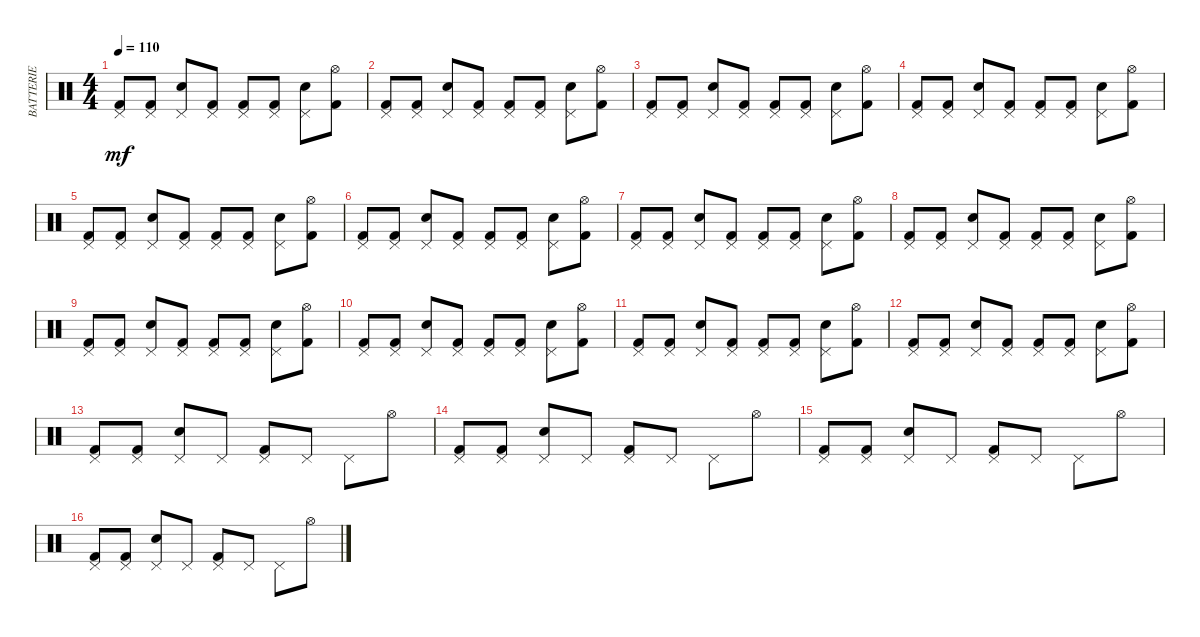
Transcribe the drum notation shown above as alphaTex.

\track ("BATTERIE" "BATTERIE") {instrument percussion}
\staff {score}
\articulation defaults
\ts (4 4)
\tempo 110
\clef neutral
\ks c
("Kick (hit) 2" "Pedal Hi-Hat (hit)").8{dy mf} ("Kick (hit) 2" "Pedal Hi-Hat (hit)").8 ("Pedal Hi-Hat (hit)" "Electric Snare (hit)").8 ("Pedal Hi-Hat (hit)" "Kick (hit) 2").8 ("Kick (hit) 2" "Pedal Hi-Hat (hit)").8 ("Pedal Hi-Hat (hit)" "Kick (hit) 2").8 ("Pedal Hi-Hat (hit)" "Electric Snare (hit)").8 ("Hi-Hat (open)" "Kick (hit) 2").8 |
("Kick (hit) 2" "Pedal Hi-Hat (hit)").8 ("Kick (hit) 2" "Pedal Hi-Hat (hit)").8 ("Pedal Hi-Hat (hit)" "Electric Snare (hit)").8 ("Pedal Hi-Hat (hit)" "Kick (hit) 2").8 ("Kick (hit) 2" "Pedal Hi-Hat (hit)").8 ("Pedal Hi-Hat (hit)" "Kick (hit) 2").8 ("Pedal Hi-Hat (hit)" "Electric Snare (hit)").8 ("Hi-Hat (open)" "Kick (hit) 2").8 |
("Pedal Hi-Hat (hit)" "Kick (hit) 2").8 ("Pedal Hi-Hat (hit)" "Kick (hit) 2").8 ("Electric Snare (hit)" "Pedal Hi-Hat (hit)").8 ("Kick (hit) 2" "Pedal Hi-Hat (hit)").8 ("Pedal Hi-Hat (hit)" "Kick (hit) 2").8 ("Kick (hit) 2" "Pedal Hi-Hat (hit)").8 ("Electric Snare (hit)" "Pedal Hi-Hat (hit)").8 ("Kick (hit) 2" "Hi-Hat (open)").8 |
("Pedal Hi-Hat (hit)" "Kick (hit) 2").8 ("Pedal Hi-Hat (hit)" "Kick (hit) 2").8 ("Electric Snare (hit)" "Pedal Hi-Hat (hit)").8 ("Kick (hit) 2" "Pedal Hi-Hat (hit)").8 ("Pedal Hi-Hat (hit)" "Kick (hit) 2").8 ("Kick (hit) 2" "Pedal Hi-Hat (hit)").8 ("Electric Snare (hit)" "Pedal Hi-Hat (hit)").8 ("Kick (hit) 2" "Hi-Hat (open)").8 |
("Pedal Hi-Hat (hit)" "Kick (hit) 2").8 ("Pedal Hi-Hat (hit)" "Kick (hit) 2").8 ("Electric Snare (hit)" "Pedal Hi-Hat (hit)").8 ("Kick (hit) 2" "Pedal Hi-Hat (hit)").8 ("Pedal Hi-Hat (hit)" "Kick (hit) 2").8 ("Kick (hit) 2" "Pedal Hi-Hat (hit)").8 ("Electric Snare (hit)" "Pedal Hi-Hat (hit)").8 ("Kick (hit) 2" "Hi-Hat (open)").8 |
("Pedal Hi-Hat (hit)" "Kick (hit) 2").8 ("Pedal Hi-Hat (hit)" "Kick (hit) 2").8 ("Electric Snare (hit)" "Pedal Hi-Hat (hit)").8 ("Kick (hit) 2" "Pedal Hi-Hat (hit)").8 ("Pedal Hi-Hat (hit)" "Kick (hit) 2").8 ("Kick (hit) 2" "Pedal Hi-Hat (hit)").8 ("Electric Snare (hit)" "Pedal Hi-Hat (hit)").8 ("Kick (hit) 2" "Hi-Hat (open)").8 |
("Pedal Hi-Hat (hit)" "Kick (hit) 2").8 ("Pedal Hi-Hat (hit)" "Kick (hit) 2").8 ("Electric Snare (hit)" "Pedal Hi-Hat (hit)").8 ("Kick (hit) 2" "Pedal Hi-Hat (hit)").8 ("Pedal Hi-Hat (hit)" "Kick (hit) 2").8 ("Kick (hit) 2" "Pedal Hi-Hat (hit)").8 ("Electric Snare (hit)" "Pedal Hi-Hat (hit)").8 ("Kick (hit) 2" "Hi-Hat (open)").8 |
("Pedal Hi-Hat (hit)" "Kick (hit) 2").8 ("Pedal Hi-Hat (hit)" "Kick (hit) 2").8 ("Electric Snare (hit)" "Pedal Hi-Hat (hit)").8 ("Kick (hit) 2" "Pedal Hi-Hat (hit)").8 ("Pedal Hi-Hat (hit)" "Kick (hit) 2").8 ("Kick (hit) 2" "Pedal Hi-Hat (hit)").8 ("Electric Snare (hit)" "Pedal Hi-Hat (hit)").8 ("Kick (hit) 2" "Hi-Hat (open)").8 |
("Pedal Hi-Hat (hit)" "Kick (hit) 2").8 ("Pedal Hi-Hat (hit)" "Kick (hit) 2").8 ("Electric Snare (hit)" "Pedal Hi-Hat (hit)").8 ("Kick (hit) 2" "Pedal Hi-Hat (hit)").8 ("Pedal Hi-Hat (hit)" "Kick (hit) 2").8 ("Kick (hit) 2" "Pedal Hi-Hat (hit)").8 ("Electric Snare (hit)" "Pedal Hi-Hat (hit)").8 ("Kick (hit) 2" "Hi-Hat (open)").8 |
("Pedal Hi-Hat (hit)" "Kick (hit) 2").8 ("Pedal Hi-Hat (hit)" "Kick (hit) 2").8 ("Electric Snare (hit)" "Pedal Hi-Hat (hit)").8 ("Kick (hit) 2" "Pedal Hi-Hat (hit)").8 ("Pedal Hi-Hat (hit)" "Kick (hit) 2").8 ("Kick (hit) 2" "Pedal Hi-Hat (hit)").8 ("Electric Snare (hit)" "Pedal Hi-Hat (hit)").8 ("Kick (hit) 2" "Hi-Hat (open)").8 |
("Pedal Hi-Hat (hit)" "Kick (hit) 2").8 ("Pedal Hi-Hat (hit)" "Kick (hit) 2").8 ("Electric Snare (hit)" "Pedal Hi-Hat (hit)").8 ("Kick (hit) 2" "Pedal Hi-Hat (hit)").8 ("Pedal Hi-Hat (hit)" "Kick (hit) 2").8 ("Kick (hit) 2" "Pedal Hi-Hat (hit)").8 ("Electric Snare (hit)" "Pedal Hi-Hat (hit)").8 ("Kick (hit) 2" "Hi-Hat (open)").8 |
("Pedal Hi-Hat (hit)" "Kick (hit) 2").8 ("Pedal Hi-Hat (hit)" "Kick (hit) 2").8 ("Electric Snare (hit)" "Pedal Hi-Hat (hit)").8 ("Kick (hit) 2" "Pedal Hi-Hat (hit)").8 ("Pedal Hi-Hat (hit)" "Kick (hit) 2").8 ("Kick (hit) 2" "Pedal Hi-Hat (hit)").8 ("Pedal Hi-Hat (hit)" "Electric Snare (hit)").8 ("Kick (hit) 2" "Hi-Hat (open)").8 |
("Pedal Hi-Hat (hit)" "Kick (hit) 2").8 ("Pedal Hi-Hat (hit)" "Kick (hit) 2").8 ("Pedal Hi-Hat (hit)" "Electric Snare (hit)").8 "Pedal Hi-Hat (hit)".8 ("Pedal Hi-Hat (hit)" "Kick (hit) 2").8 "Pedal Hi-Hat (hit)".8 "Pedal Hi-Hat (hit)".8 "Hi-Hat (open)".8 |
("Kick (hit) 2" "Pedal Hi-Hat (hit)").8 ("Kick (hit) 2" "Pedal Hi-Hat (hit)").8 ("Electric Snare (hit)" "Pedal Hi-Hat (hit)").8 "Pedal Hi-Hat (hit)".8 ("Kick (hit) 2" "Pedal Hi-Hat (hit)").8 "Pedal Hi-Hat (hit)".8 "Pedal Hi-Hat (hit)".8 "Hi-Hat (open)".8 |
("Pedal Hi-Hat (hit)" "Kick (hit) 2").8 ("Pedal Hi-Hat (hit)" "Kick (hit) 2").8 ("Pedal Hi-Hat (hit)" "Electric Snare (hit)").8 "Pedal Hi-Hat (hit)".8 ("Pedal Hi-Hat (hit)" "Kick (hit) 2").8 "Pedal Hi-Hat (hit)".8 "Pedal Hi-Hat (hit)".8 "Hi-Hat (open)".8 |
("Kick (hit) 2" "Pedal Hi-Hat (hit)").8 ("Kick (hit) 2" "Pedal Hi-Hat (hit)").8 ("Electric Snare (hit)" "Pedal Hi-Hat (hit)").8 "Pedal Hi-Hat (hit)".8 ("Kick (hit) 2" "Pedal Hi-Hat (hit)").8 "Pedal Hi-Hat (hit)".8 "Pedal Hi-Hat (hit)".8 "Hi-Hat (open)".8
